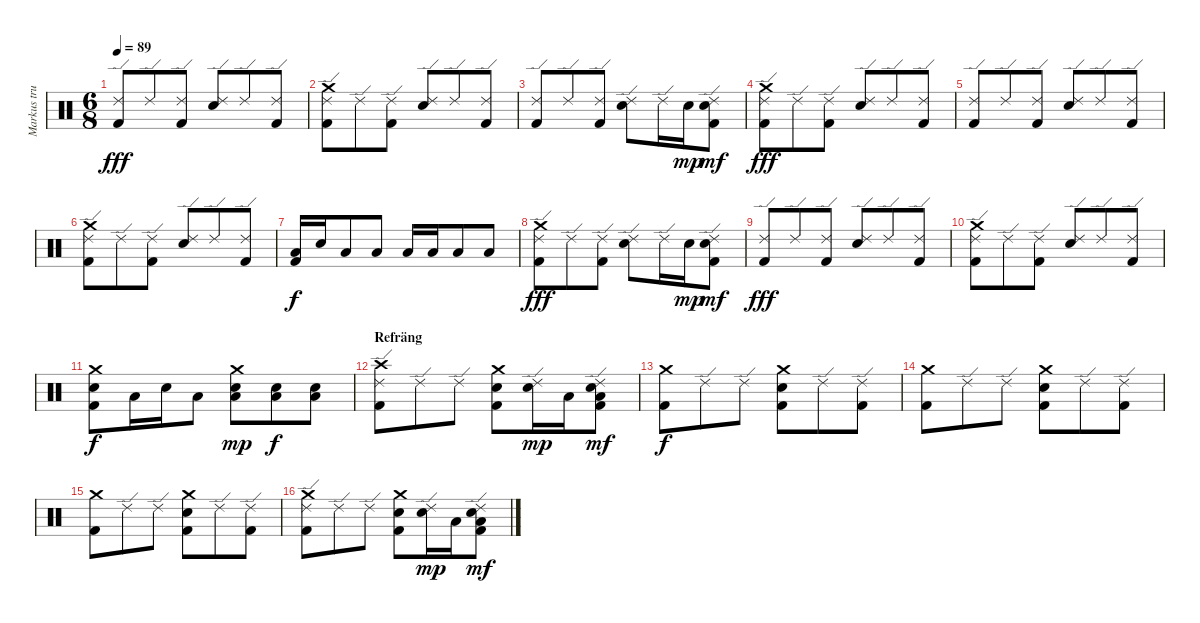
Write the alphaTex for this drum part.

\track ("Markus trummor" "Markus tru") {instrument percussion}
\staff {score}
\articulation defaults
\ts (6 8)
\tempo 89
\clef neutral
\ks c
("Ride (edge) 2" "Kick (hit) 2").8{dy fff} "Ride (edge) 2".8 ("Ride (edge) 2" "Kick (hit) 2").8 ("Ride (edge) 2" "Snare (hit) 2").8 "Ride (edge) 2".8 ("Ride (edge) 2" "Kick (hit) 2").8 |
("Crash medium (hit)" "Ride (edge) 2" "Kick (hit) 2").8 "Ride (edge) 2".8 ("Ride (edge) 2" "Kick (hit) 2").8 ("Ride (edge) 2" "Snare (hit) 2").8 "Ride (edge) 2".8 ("Ride (edge) 2" "Kick (hit) 2").8 |
("Ride (edge) 2" "Kick (hit) 2").8 "Ride (edge) 2".8 ("Ride (edge) 2" "Kick (hit) 2").8 ("Ride (edge) 2" "Snare (hit) 2").8 "Ride (edge) 2".16 "Snare (hit) 2".16{dy mp} ("Ride (edge) 2" "Snare (hit) 2" "Kick (hit) 2").8{dy mf} |
("Crash medium (hit)" "Ride (edge) 2" "Kick (hit) 2").8{dy fff} "Ride (edge) 2".8 ("Ride (edge) 2" "Kick (hit) 2").8 ("Ride (edge) 2" "Snare (hit) 2").8 "Ride (edge) 2".8 ("Ride (edge) 2" "Kick (hit) 2").8 |
("Ride (edge) 2" "Kick (hit) 2").8 "Ride (edge) 2".8 ("Ride (edge) 2" "Kick (hit) 2").8 ("Ride (edge) 2" "Snare (hit) 2").8 "Ride (edge) 2".8 ("Ride (edge) 2" "Kick (hit) 2").8 |
("Crash medium (hit)" "Ride (edge) 2" "Kick (hit) 2").8 "Ride (edge) 2".8 ("Ride (edge) 2" "Kick (hit) 2").8 ("Ride (edge) 2" "Snare (hit) 2").8 "Ride (edge) 2".8 ("Ride (edge) 2" "Kick (hit) 2").8 |
("Low Tom (hit)" "Kick (hit) 2").16{dy f} "Snare (hit) 2".16 "Low Tom (hit)".8 "Low Tom (hit)".8 "Low Floor Tom (hit)".16 "Low Tom (hit)".16 "Low Floor Tom (hit)".8 "Low Floor Tom (hit)".8 |
("Crash medium (hit)" "Ride (edge) 2" "Kick (hit) 2").8{dy fff} "Ride (edge) 2".8 ("Ride (edge) 2" "Kick (hit) 2").8 ("Ride (edge) 2" "Snare (hit) 2").8 "Ride (edge) 2".16 "Snare (hit) 2".16{dy mp} ("Ride (edge) 2" "Snare (hit) 2" "Kick (hit) 2").8{dy mf} |
("Ride (edge) 2" "Kick (hit) 2").8{dy fff} "Ride (edge) 2".8 ("Ride (edge) 2" "Kick (hit) 2").8 ("Ride (edge) 2" "Snare (hit) 2").8 "Ride (edge) 2".8 ("Ride (edge) 2" "Kick (hit) 2").8 |
("Crash medium (hit)" "Ride (edge) 2" "Kick (hit) 2").8 "Ride (edge) 2".8 ("Ride (edge) 2" "Kick (hit) 2").8 ("Ride (edge) 2" "Snare (hit) 2").8 "Ride (edge) 2".8 ("Ride (edge) 2" "Kick (hit) 2").8 |
("Crash medium (hit)" "Snare (hit) 2" "Kick (hit) 2").8{dy f} "Low Tom (hit)".16 "Snare (hit) 2".16 "Low Tom (hit)".8 ("Crash medium (hit)" "Low Tom (hit)" "Snare (hit) 2").8{dy mp} ("Low Floor Tom (hit)" "Snare (hit) 2").8{dy f} ("Low Floor Tom (hit)" "Snare (hit) 2").8 |
\section ("" "Refräng")
("Crash high (hit)" "Ride (edge) 2" "Kick (hit) 2").8 "Ride (edge) 2".8 "Ride (edge) 2".8 ("Crash medium (hit)" "Snare (hit) 2" "Kick (hit) 2").8 ("Ride (edge) 2" "Snare (hit) 2").16{dy mp} "Low Tom (hit)".16 ("Ride (edge) 2" "Snare (hit) 2" "Low Floor Tom (hit)" "Kick (hit) 2").8{dy mf} |
("Crash medium (hit)" "Kick (hit) 2").8{dy f} "Ride (edge) 2".8 "Ride (edge) 2".8 ("Crash medium (hit)" "Snare (hit) 2" "Kick (hit) 2").8 "Ride (edge) 2".8 ("Ride (edge) 2" "Kick (hit) 2").8 |
("Crash medium (hit)" "Kick (hit) 2").8 "Ride (edge) 2".8 "Ride (edge) 2".8 ("Crash medium (hit)" "Snare (hit) 2" "Kick (hit) 2").8 "Ride (edge) 2".8 ("Ride (edge) 2" "Kick (hit) 2").8 |
("Crash medium (hit)" "Kick (hit) 2").8 "Ride (edge) 2".8 "Ride (edge) 2".8 ("Crash medium (hit)" "Snare (hit) 2" "Kick (hit) 2").8 "Ride (edge) 2".8 ("Ride (edge) 2" "Kick (hit) 2").8 |
("Crash medium (hit)" "Ride (edge) 2" "Kick (hit) 2").8 "Ride (edge) 2".8 "Ride (edge) 2".8 ("Crash medium (hit)" "Snare (hit) 2" "Kick (hit) 2").8 ("Ride (edge) 2" "Snare (hit) 2").16{dy mp} "Low Tom (hit)".16 ("Ride (edge) 2" "Snare (hit) 2" "Low Floor Tom (hit)" "Kick (hit) 2").8{dy mf}
